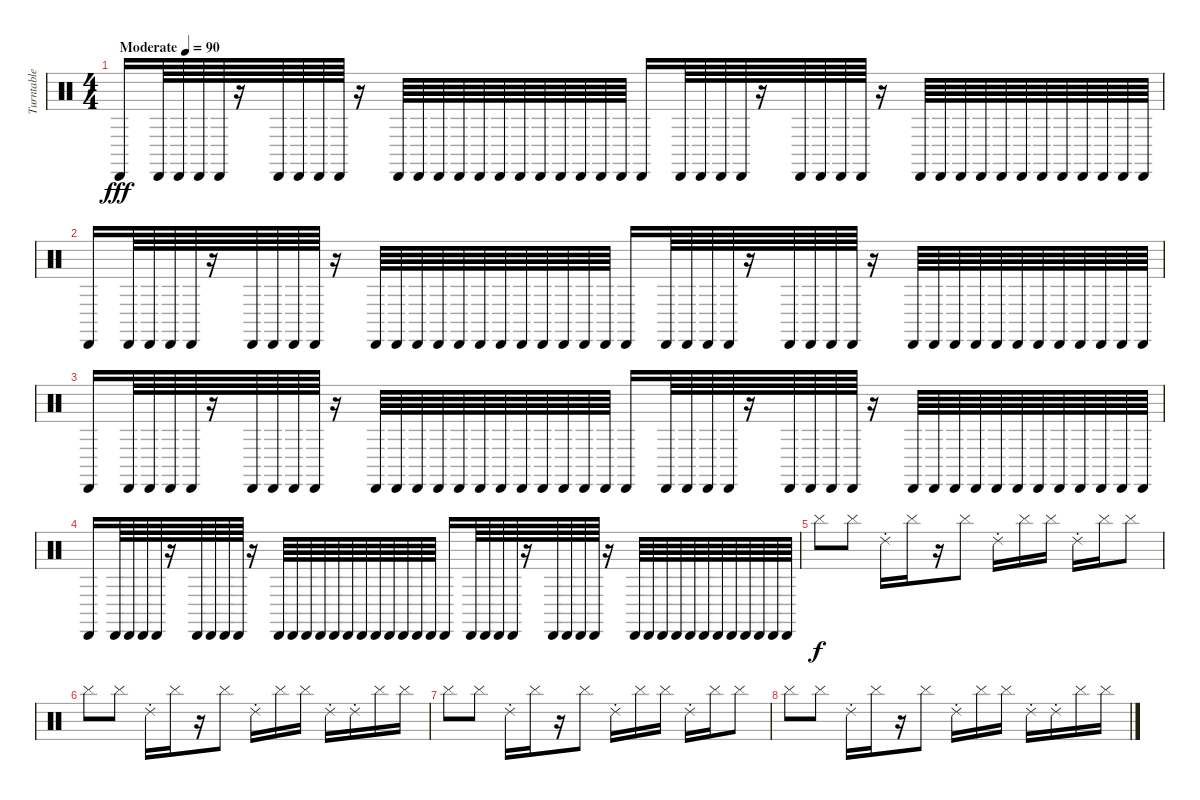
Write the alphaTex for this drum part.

\track ("Turntable" "Turntable") {instrument percussion}
\staff {score}
\articulation defaults
\ts (4 4)
\tempo (90 "Moderate")
\clef neutral
\ks c "Cabasa (hit)".16{dy fff volume 8} "Cabasa (hit)".64 "Cabasa (hit)".64 "Cabasa (hit)".64 "Cabasa (hit)".64
r.16 "Cabasa (hit)".64 "Cabasa (hit)".64 "Cabasa (hit)".64 "Cabasa (hit)".64 r.16 "Cabasa (hit)".64 "Cabasa (hit)".64 "Cabasa (hit)".64 "Cabasa (hit)".64 "Cabasa (hit)".64 "Cabasa (hit)".64 "Cabasa (hit)".64 "Cabasa (hit)".64 "Cabasa (hit)".64 "Cabasa (hit)".64 "Cabasa (hit)".64 "Cabasa (hit)".64 "Cabasa (hit)".16 "Cabasa (hit)".64 "Cabasa (hit)".64 "Cabasa (hit)".64 "Cabasa (hit)".64 r.16 "Cabasa (hit)".64 "Cabasa (hit)".64 "Cabasa (hit)".64 "Cabasa (hit)".64 r.16 "Cabasa (hit)".64 "Cabasa (hit)".64 "Cabasa (hit)".64 "Cabasa (hit)".64 "Cabasa (hit)".64 "Cabasa (hit)".64 "Cabasa (hit)".64 "Cabasa (hit)".64 "Cabasa (hit)".64 "Cabasa (hit)".64 "Cabasa (hit)".64 "Cabasa (hit)".64 |
"Cabasa (hit)".16 "Cabasa (hit)".64 "Cabasa (hit)".64 "Cabasa (hit)".64 "Cabasa (hit)".64 r.16 "Cabasa (hit)".64 "Cabasa (hit)".64 "Cabasa (hit)".64 "Cabasa (hit)".64 r.16 "Cabasa (hit)".64 "Cabasa (hit)".64 "Cabasa (hit)".64 "Cabasa (hit)".64 "Cabasa (hit)".64 "Cabasa (hit)".64 "Cabasa (hit)".64 "Cabasa (hit)".64 "Cabasa (hit)".64 "Cabasa (hit)".64 "Cabasa (hit)".64 "Cabasa (hit)".64 "Cabasa (hit)".16 "Cabasa (hit)".64 "Cabasa (hit)".64 "Cabasa (hit)".64 "Cabasa (hit)".64 r.16 "Cabasa (hit)".64 "Cabasa (hit)".64 "Cabasa (hit)".64 "Cabasa (hit)".64 r.16 "Cabasa (hit)".64 "Cabasa (hit)".64 "Cabasa (hit)".64 "Cabasa (hit)".64 "Cabasa (hit)".64 "Cabasa (hit)".64 "Cabasa (hit)".64 "Cabasa (hit)".64 "Cabasa (hit)".64 "Cabasa (hit)".64 "Cabasa (hit)".64 "Cabasa (hit)".64 |
"Cabasa (hit)".16 "Cabasa (hit)".64 "Cabasa (hit)".64 "Cabasa (hit)".64 "Cabasa (hit)".64 r.16 "Cabasa (hit)".64 "Cabasa (hit)".64 "Cabasa (hit)".64 "Cabasa (hit)".64 r.16 "Cabasa (hit)".64 "Cabasa (hit)".64 "Cabasa (hit)".64 "Cabasa (hit)".64 "Cabasa (hit)".64 "Cabasa (hit)".64 "Cabasa (hit)".64 "Cabasa (hit)".64 "Cabasa (hit)".64 "Cabasa (hit)".64 "Cabasa (hit)".64 "Cabasa (hit)".64 "Cabasa (hit)".16 "Cabasa (hit)".64 "Cabasa (hit)".64 "Cabasa (hit)".64 "Cabasa (hit)".64 r.16 "Cabasa (hit)".64 "Cabasa (hit)".64 "Cabasa (hit)".64 "Cabasa (hit)".64 r.16 "Cabasa (hit)".64 "Cabasa (hit)".64 "Cabasa (hit)".64 "Cabasa (hit)".64 "Cabasa (hit)".64 "Cabasa (hit)".64 "Cabasa (hit)".64 "Cabasa (hit)".64 "Cabasa (hit)".64 "Cabasa (hit)".64 "Cabasa (hit)".64 "Cabasa (hit)".64 |
"Cabasa (hit)".16 "Cabasa (hit)".64 "Cabasa (hit)".64 "Cabasa (hit)".64 "Cabasa (hit)".64 r.16 "Cabasa (hit)".64 "Cabasa (hit)".64 "Cabasa (hit)".64 "Cabasa (hit)".64 r.16 "Cabasa (hit)".64 "Cabasa (hit)".64 "Cabasa (hit)".64 "Cabasa (hit)".64 "Cabasa (hit)".64 "Cabasa (hit)".64 "Cabasa (hit)".64 "Cabasa (hit)".64 "Cabasa (hit)".64 "Cabasa (hit)".64 "Cabasa (hit)".64 "Cabasa (hit)".64 "Cabasa (hit)".16 "Cabasa (hit)".64 "Cabasa (hit)".64 "Cabasa (hit)".64 "Cabasa (hit)".64 r.16 "Cabasa (hit)".64 "Cabasa (hit)".64 "Cabasa (hit)".64 "Cabasa (hit)".64 r.16 "Cabasa (hit)".64 "Cabasa (hit)".64 "Cabasa (hit)".64 "Cabasa (hit)".64 "Cabasa (hit)".64 "Cabasa (hit)".64 "Cabasa (hit)".64 "Cabasa (hit)".64 "Cabasa (hit)".64 "Cabasa (hit)".64 "Cabasa (hit)".64 "Cabasa (hit)".64 |
"Cymbal (hit)".8{dy f} "Cymbal (hit)".8 "Ride (choke) 2".16 "Cymbal (hit)".16 r.16 "Cymbal (hit)".8 "Ride (choke) 2".16 "Cymbal (hit)".16 "Cymbal (hit)".16 "Ride (choke) 2".16 "Cymbal (hit)".16 "Cymbal (hit)".8 |
"Cymbal (hit)".8 "Cymbal (hit)".8 "Ride (choke) 2".16 "Cymbal (hit)".16 r.16 "Cymbal (hit)".8 "Ride (choke) 2".16 "Cymbal (hit)".16 "Cymbal (hit)".16 "Ride (choke) 2".16 "Ride (choke) 2".16 "Cymbal (hit)".16 "Cymbal (hit)".16 |
"Cymbal (hit)".8 "Cymbal (hit)".8 "Ride (choke) 2".16 "Cymbal (hit)".16 r.16 "Cymbal (hit)".8 "Ride (choke) 2".16 "Cymbal (hit)".16 "Cymbal (hit)".16 "Ride (choke) 2".16 "Cymbal (hit)".16 "Cymbal (hit)".8 |
"Cymbal (hit)".8 "Cymbal (hit)".8 "Ride (choke) 2".16 "Cymbal (hit)".16 r.16 "Cymbal (hit)".8 "Ride (choke) 2".16 "Cymbal (hit)".16 "Cymbal (hit)".16 "Ride (choke) 2".16 "Ride (choke) 2".16 "Cymbal (hit)".16 "Cymbal (hit)".16
